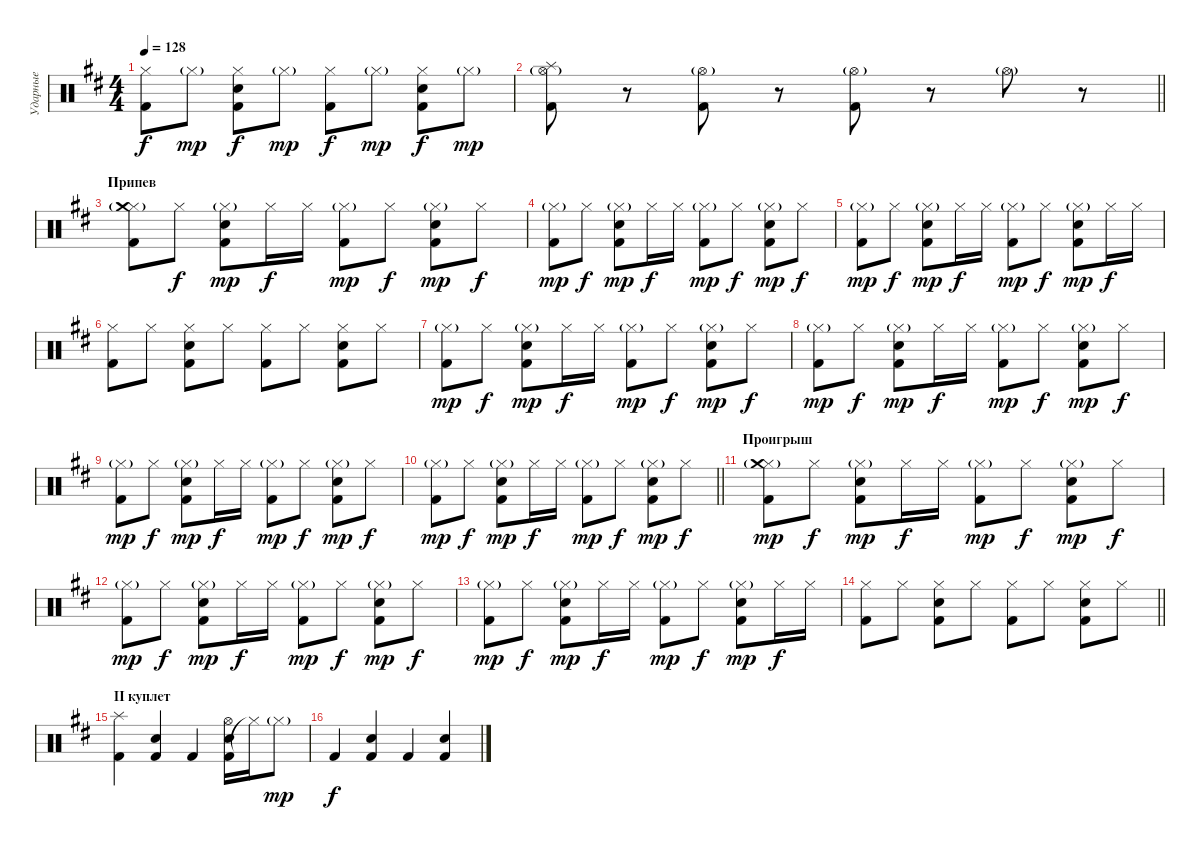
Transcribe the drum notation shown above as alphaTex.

\track ("Ударные" "Ударные") {instrument percussion}
\staff {score}
\articulation defaults
\ts (4 4)
\tempo 128
\clef neutral
\ks bminor
("Hi-Hat (closed)" "Kick (hit) 2").8{dy f} "Hi-Hat (closed)"{g}.8{dy mp} ("Hi-Hat (closed)" "Kick (hit) 2" "Snare (hit) 2").8{dy f} "Hi-Hat (closed)"{g}.8{dy mp} ("Hi-Hat (closed)" "Kick (hit) 2").8{dy f} "Hi-Hat (closed)"{g}.8{dy mp} ("Hi-Hat (closed)" "Kick (hit) 2" "Snare (hit) 2").8{dy f} "Hi-Hat (closed)"{g}.8{dy mp} |
\barLineRight lightlight
("Hi-Hat (open)"{g} "Splash (hit)" "Kick (hit) 2").8 r.8 ("Hi-Hat (open)"{g} "Kick (hit) 2").8 r.8 ("Hi-Hat (open)"{g} "Kick (hit) 2").8 r.8 "Hi-Hat (open)"{g}.8 r.8 |
\section ("" "Припев")
("Hi-Hat (closed)"{g} "Crash medium (hit)" "Kick (hit) 2").8 "Hi-Hat (closed)".8{dy f} ("Hi-Hat (closed)"{g} "Kick (hit) 2" "Snare (hit) 2").8{dy mp} "Hi-Hat (closed)".16{dy f} "Hi-Hat (closed)".16 ("Hi-Hat (closed)"{g} "Kick (hit) 2").8{dy mp} "Hi-Hat (closed)".8{dy f} ("Hi-Hat (closed)"{g} "Kick (hit) 2" "Snare (hit) 2").8{dy mp} "Hi-Hat (closed)".8{dy f} |
("Hi-Hat (closed)"{g} "Kick (hit) 2").8{dy mp} "Hi-Hat (closed)".8{dy f} ("Hi-Hat (closed)"{g} "Kick (hit) 2" "Snare (hit) 2").8{dy mp} "Hi-Hat (closed)".16{dy f} "Hi-Hat (closed)".16 ("Hi-Hat (closed)"{g} "Kick (hit) 2").8{dy mp} "Hi-Hat (closed)".8{dy f} ("Hi-Hat (closed)"{g} "Kick (hit) 2" "Snare (hit) 2").8{dy mp} "Hi-Hat (closed)".8{dy f} |
("Hi-Hat (closed)"{g} "Kick (hit) 2").8{dy mp} "Hi-Hat (closed)".8{dy f} ("Hi-Hat (closed)"{g} "Kick (hit) 2" "Snare (hit) 2").8{dy mp} "Hi-Hat (closed)".16{dy f} "Hi-Hat (closed)".16 ("Hi-Hat (closed)"{g} "Kick (hit) 2").8{dy mp} "Hi-Hat (closed)".8{dy f} ("Hi-Hat (closed)"{g} "Kick (hit) 2" "Snare (hit) 2").8{dy mp} "Hi-Hat (closed)".16{dy f} "Hi-Hat (closed)".16 |
("Hi-Hat (closed)" "Kick (hit) 2").8 "Hi-Hat (closed)".8 ("Hi-Hat (closed)" "Kick (hit) 2" "Snare (hit) 2").8 "Hi-Hat (closed)".8 ("Hi-Hat (closed)" "Kick (hit) 2").8 "Hi-Hat (closed)".8 ("Hi-Hat (closed)" "Kick (hit) 2" "Snare (hit) 2").8 "Hi-Hat (closed)".8 |
("Hi-Hat (closed)"{g} "Kick (hit) 2").8{dy mp} "Hi-Hat (closed)".8{dy f} ("Hi-Hat (closed)"{g} "Kick (hit) 2" "Snare (hit) 2").8{dy mp} "Hi-Hat (closed)".16{dy f} "Hi-Hat (closed)".16 ("Hi-Hat (closed)"{g} "Kick (hit) 2").8{dy mp} "Hi-Hat (closed)".8{dy f} ("Hi-Hat (closed)"{g} "Kick (hit) 2" "Snare (hit) 2").8{dy mp} "Hi-Hat (closed)".8{dy f} |
("Hi-Hat (closed)"{g} "Kick (hit) 2").8{dy mp} "Hi-Hat (closed)".8{dy f} ("Hi-Hat (closed)"{g} "Kick (hit) 2" "Snare (hit) 2").8{dy mp} "Hi-Hat (closed)".16{dy f} "Hi-Hat (closed)".16 ("Hi-Hat (closed)"{g} "Kick (hit) 2").8{dy mp} "Hi-Hat (closed)".8{dy f} ("Hi-Hat (closed)"{g} "Kick (hit) 2" "Snare (hit) 2").8{dy mp} "Hi-Hat (closed)".8{dy f} |
("Hi-Hat (closed)"{g} "Kick (hit) 2").8{dy mp} "Hi-Hat (closed)".8{dy f} ("Hi-Hat (closed)"{g} "Kick (hit) 2" "Snare (hit) 2").8{dy mp} "Hi-Hat (closed)".16{dy f} "Hi-Hat (closed)".16 ("Hi-Hat (closed)"{g} "Kick (hit) 2").8{dy mp} "Hi-Hat (closed)".8{dy f} ("Hi-Hat (closed)"{g} "Kick (hit) 2" "Snare (hit) 2").8{dy mp} "Hi-Hat (closed)".8{dy f} |
\barLineRight lightlight
("Hi-Hat (closed)"{g} "Kick (hit) 2").8{dy mp} "Hi-Hat (closed)".8{dy f} ("Hi-Hat (closed)"{g} "Kick (hit) 2" "Snare (hit) 2").8{dy mp} "Hi-Hat (closed)".16{dy f} "Hi-Hat (closed)".16 ("Hi-Hat (closed)"{g} "Kick (hit) 2").8{dy mp} "Hi-Hat (closed)".8{dy f} ("Hi-Hat (closed)"{g} "Kick (hit) 2" "Snare (hit) 2").8{dy mp} "Hi-Hat (closed)".8{dy f} |
\section ("" "Проигрыш")
("Hi-Hat (closed)"{g} "Crash medium (hit)" "Kick (hit) 2").8{dy mp} "Hi-Hat (closed)".8{dy f} ("Hi-Hat (closed)"{g} "Kick (hit) 2" "Snare (hit) 2").8{dy mp} "Hi-Hat (closed)".16{dy f} "Hi-Hat (closed)".16 ("Hi-Hat (closed)"{g} "Kick (hit) 2").8{dy mp} "Hi-Hat (closed)".8{dy f} ("Hi-Hat (closed)"{g} "Kick (hit) 2" "Snare (hit) 2").8{dy mp} "Hi-Hat (closed)".8{dy f} |
("Hi-Hat (closed)"{g} "Kick (hit) 2").8{dy mp} "Hi-Hat (closed)".8{dy f} ("Hi-Hat (closed)"{g} "Kick (hit) 2" "Snare (hit) 2").8{dy mp} "Hi-Hat (closed)".16{dy f} "Hi-Hat (closed)".16 ("Hi-Hat (closed)"{g} "Kick (hit) 2").8{dy mp} "Hi-Hat (closed)".8{dy f} ("Hi-Hat (closed)"{g} "Kick (hit) 2" "Snare (hit) 2").8{dy mp} "Hi-Hat (closed)".8{dy f} |
("Hi-Hat (closed)"{g} "Kick (hit) 2").8{dy mp} "Hi-Hat (closed)".8{dy f} ("Hi-Hat (closed)"{g} "Kick (hit) 2" "Snare (hit) 2").8{dy mp} "Hi-Hat (closed)".16{dy f} "Hi-Hat (closed)".16 ("Hi-Hat (closed)"{g} "Kick (hit) 2").8{dy mp} "Hi-Hat (closed)".8{dy f} ("Hi-Hat (closed)"{g} "Kick (hit) 2" "Snare (hit) 2").8{dy mp} "Hi-Hat (closed)".16{dy f} "Hi-Hat (closed)".16 |
\barLineRight lightlight
("Hi-Hat (closed)" "Kick (hit) 2").8 "Hi-Hat (closed)".8 ("Hi-Hat (closed)" "Kick (hit) 2" "Snare (hit) 2").8 "Hi-Hat (closed)".8 ("Hi-Hat (closed)" "Kick (hit) 2").8 "Hi-Hat (closed)".8 ("Hi-Hat (closed)" "Kick (hit) 2" "Snare (hit) 2").8 "Hi-Hat (closed)".8 |
\section ("" "II куплет")
("Kick (hit) 2" "Splash (hit)").4 ("Kick (hit) 2" "Snare (hit) 2").4 "Kick (hit) 2".4 ("Kick (hit) 2" "Snare (hit) 2" "Hi-Hat (open)").16 "Hi-Hat (closed)"{t}.16 "Hi-Hat (closed)"{g}.8{dy mp} |
"Kick (hit) 2".4{dy f} ("Kick (hit) 2" "Snare (hit) 2").4 "Kick (hit) 2".4 ("Kick (hit) 2" "Snare (hit) 2").4
